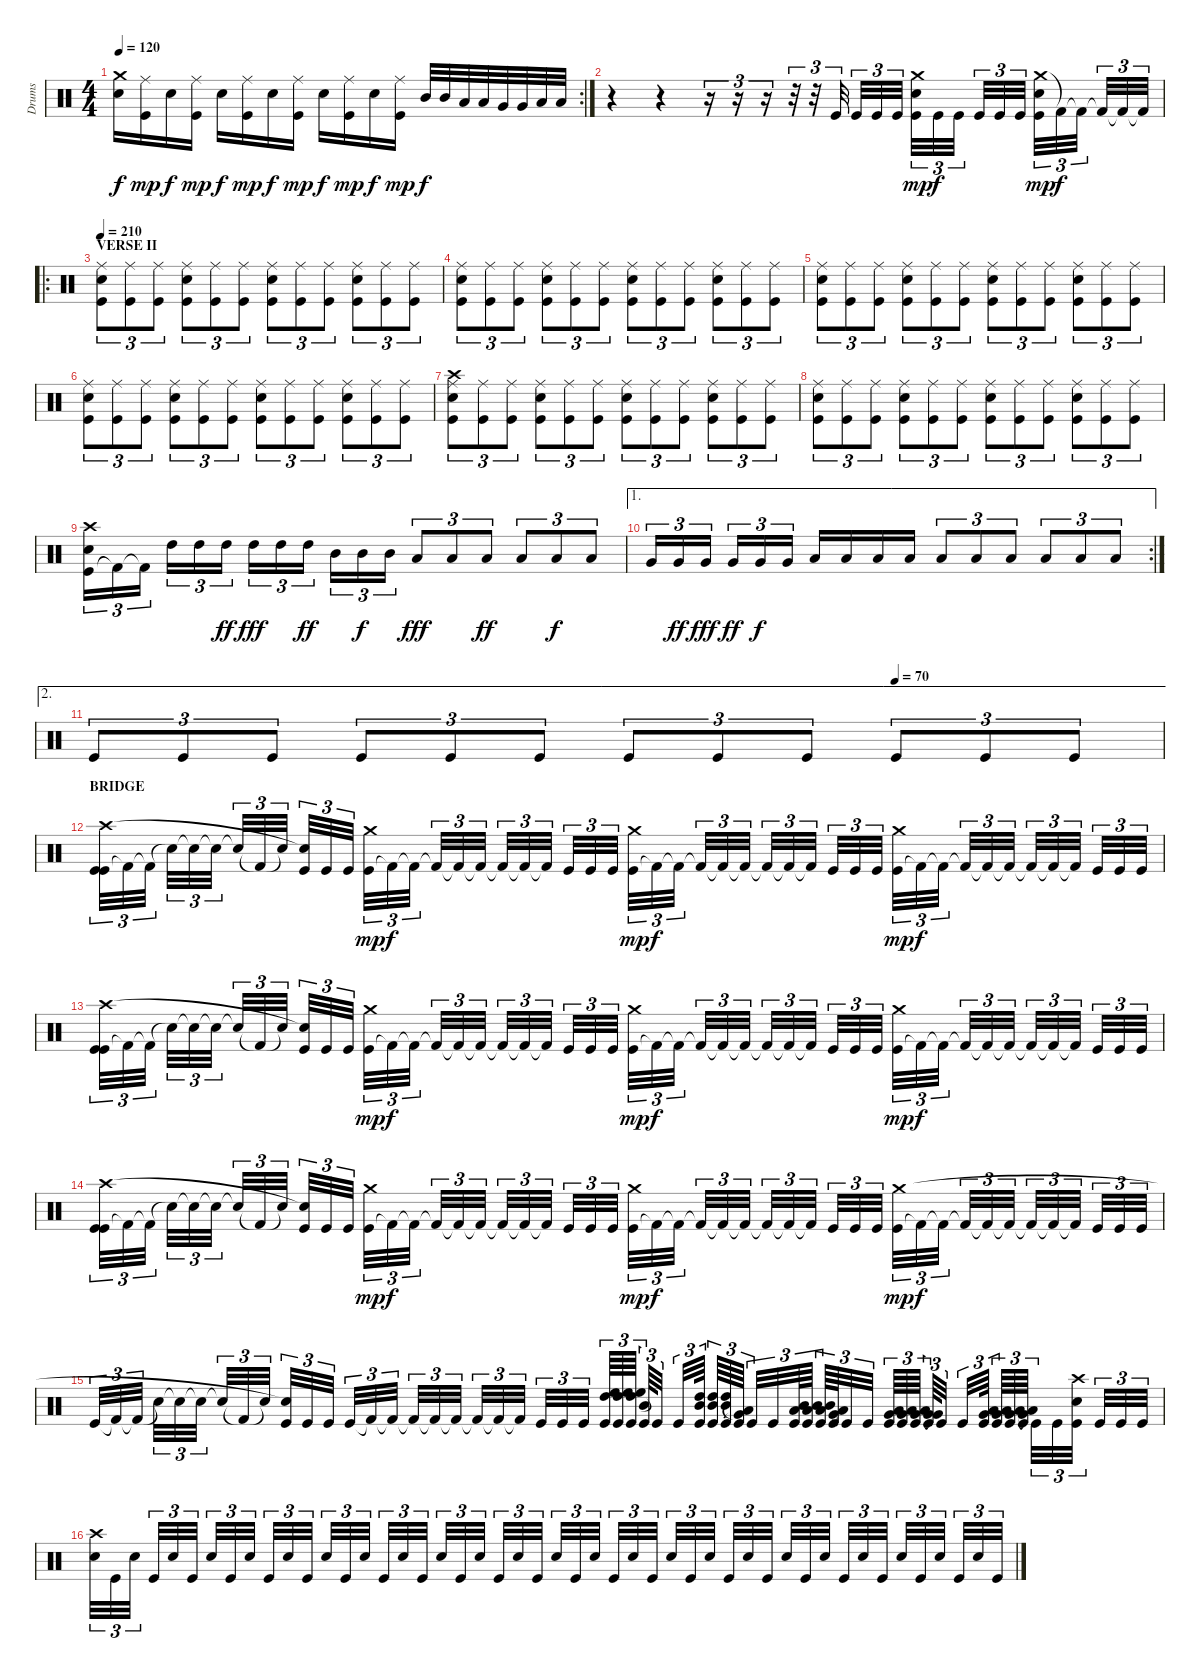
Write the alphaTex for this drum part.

\track ("Drums" "Drums") {instrument percussion}
\staff {score}
\articulation defaults
\rc 2
\ts (4 4)
\tempo 120
\clef neutral
\ks c
("Crash medium (hit)" "Snare (hit) 2").16{dy f} ("Ride (middle)" "Kick (hit)").16{dy mp} "Snare (hit) 2".16{dy f} ("Ride (middle)" "Kick (hit)").16{dy mp} "Snare (hit) 2".16{dy f} ("Ride (middle)" "Kick (hit)").16{dy mp} "Snare (hit) 2".16{dy f} ("Ride (middle)" "Kick (hit)").16{dy mp} "Snare (hit) 2".16{dy f} ("Ride (middle)" "Kick (hit)").16{dy mp} "Snare (hit) 2".16{dy f} ("Ride (middle)" "Kick (hit)").16{dy mp} "Mid Tom (hit)".32{dy f} "Mid Tom (hit)".32 "Low Tom (hit)".32 "Low Tom (hit)".32 "Very Low Tom (hit)".32 "Very Low Tom (hit)".32 "Low Floor Tom (hit)".32 "Low Floor Tom (hit)".32 |
r.4 r.4 r.16{tu (3 2)} r.16{tu (3 2)} r.16{tu (3 2)} r.32{tu (3 2)} r.32{tu (3 2)} "Kick (hit)".32{tu (3 2)} "Kick (hit)".32{tu (3 2)} "Kick (hit)".32{tu (3 2)} "Kick (hit)".32{tu (3 2)} ("Crash medium (hit)" "Snare (hit) 2" "Kick (hit)").32{tu (3 2) dy mp} "Kick (hit)".32{tu (3 2) dy f} "Kick (hit)".32{tu (3 2)} "Kick (hit)".32{tu (3 2)} "Kick (hit)".32{tu (3 2)} "Kick (hit)".32{tu (3 2)} ("Crash medium (hit)" "Snare (hit) 2" "Kick (hit)").32{tu (3 2) dy mp} "Kick (hit) 2"{t}.32{tu (3 2) dy f} "Kick (hit) 2"{t}.32{tu (3 2)} "Kick (hit) 2"{t}.32{tu (3 2)} "Kick (hit) 2"{t}.32{tu (3 2)} "Kick (hit) 2"{t}.32{tu (3 2)} |
\ro
\section ("" "VERSE II")
\tempo 210
("Snare (hit) 2" "Ride (middle)" "Kick (hit)").8{tu (3 2)} ("Ride (middle)" "Kick (hit)").8{tu (3 2)} ("Ride (middle)" "Kick (hit)").8{tu (3 2)} ("Snare (hit) 2" "Ride (middle)" "Kick (hit)").8{tu (3 2)} ("Ride (middle)" "Kick (hit)").8{tu (3 2)} ("Ride (middle)" "Kick (hit)").8{tu (3 2)} ("Snare (hit) 2" "Ride (middle)" "Kick (hit)").8{tu (3 2)} ("Ride (middle)" "Kick (hit)").8{tu (3 2)} ("Ride (middle)" "Kick (hit)").8{tu (3 2)} ("Snare (hit) 2" "Ride (middle)" "Kick (hit)").8{tu (3 2)} ("Ride (middle)" "Kick (hit)").8{tu (3 2)} ("Ride (middle)" "Kick (hit)").8{tu (3 2)} |
("Snare (hit) 2" "Ride (middle)" "Kick (hit)").8{tu (3 2)} ("Ride (middle)" "Kick (hit)").8{tu (3 2)} ("Ride (middle)" "Kick (hit)").8{tu (3 2)} ("Snare (hit) 2" "Ride (middle)" "Kick (hit)").8{tu (3 2)} ("Ride (middle)" "Kick (hit)").8{tu (3 2)} ("Ride (middle)" "Kick (hit)").8{tu (3 2)} ("Snare (hit) 2" "Ride (middle)" "Kick (hit)").8{tu (3 2)} ("Ride (middle)" "Kick (hit)").8{tu (3 2)} ("Ride (middle)" "Kick (hit)").8{tu (3 2)} ("Snare (hit) 2" "Ride (middle)" "Kick (hit)").8{tu (3 2)} ("Ride (middle)" "Kick (hit)").8{tu (3 2)} ("Ride (middle)" "Kick (hit)").8{tu (3 2)} |
("Snare (hit) 2" "Ride (middle)" "Kick (hit)").8{tu (3 2)} ("Ride (middle)" "Kick (hit)").8{tu (3 2)} ("Ride (middle)" "Kick (hit)").8{tu (3 2)} ("Snare (hit) 2" "Ride (middle)" "Kick (hit)").8{tu (3 2)} ("Ride (middle)" "Kick (hit)").8{tu (3 2)} ("Ride (middle)" "Kick (hit)").8{tu (3 2)} ("Snare (hit) 2" "Ride (middle)" "Kick (hit)").8{tu (3 2)} ("Ride (middle)" "Kick (hit)").8{tu (3 2)} ("Ride (middle)" "Kick (hit)").8{tu (3 2)} ("Snare (hit) 2" "Ride (middle)" "Kick (hit)").8{tu (3 2)} ("Ride (middle)" "Kick (hit)").8{tu (3 2)} ("Ride (middle)" "Kick (hit)").8{tu (3 2)} |
("Snare (hit) 2" "Ride (middle)" "Kick (hit)").8{tu (3 2)} ("Ride (middle)" "Kick (hit)").8{tu (3 2)} ("Ride (middle)" "Kick (hit)").8{tu (3 2)} ("Snare (hit) 2" "Ride (middle)" "Kick (hit)").8{tu (3 2)} ("Ride (middle)" "Kick (hit)").8{tu (3 2)} ("Ride (middle)" "Kick (hit)").8{tu (3 2)} ("Snare (hit) 2" "Ride (middle)" "Kick (hit)").8{tu (3 2)} ("Ride (middle)" "Kick (hit)").8{tu (3 2)} ("Ride (middle)" "Kick (hit)").8{tu (3 2)} ("Snare (hit) 2" "Ride (middle)" "Kick (hit)").8{tu (3 2)} ("Ride (middle)" "Kick (hit)").8{tu (3 2)} ("Ride (middle)" "Kick (hit)").8{tu (3 2)} |
("Snare (hit) 2" "Crash high (hit)" "Ride (middle)" "Kick (hit)").8{tu (3 2)} ("Ride (middle)" "Kick (hit)").8{tu (3 2)} ("Ride (middle)" "Kick (hit)").8{tu (3 2)} ("Snare (hit) 2" "Ride (middle)" "Kick (hit)").8{tu (3 2)} ("Ride (middle)" "Kick (hit)").8{tu (3 2)} ("Ride (middle)" "Kick (hit)").8{tu (3 2)} ("Snare (hit) 2" "Ride (middle)" "Kick (hit)").8{tu (3 2)} ("Ride (middle)" "Kick (hit)").8{tu (3 2)} ("Ride (middle)" "Kick (hit)").8{tu (3 2)} ("Snare (hit) 2" "Ride (middle)" "Kick (hit)").8{tu (3 2)} ("Ride (middle)" "Kick (hit)").8{tu (3 2)} ("Ride (middle)" "Kick (hit)").8{tu (3 2)} |
("Snare (hit) 2" "Ride (middle)" "Kick (hit)").8{tu (3 2)} ("Ride (middle)" "Kick (hit)").8{tu (3 2)} ("Ride (middle)" "Kick (hit)").8{tu (3 2)} ("Snare (hit) 2" "Ride (middle)" "Kick (hit)").8{tu (3 2)} ("Ride (middle)" "Kick (hit)").8{tu (3 2)} ("Ride (middle)" "Kick (hit)").8{tu (3 2)} ("Snare (hit) 2" "Ride (middle)" "Kick (hit)").8{tu (3 2)} ("Ride (middle)" "Kick (hit)").8{tu (3 2)} ("Ride (middle)" "Kick (hit)").8{tu (3 2)} ("Snare (hit) 2" "Ride (middle)" "Kick (hit)").8{tu (3 2)} ("Ride (middle)" "Kick (hit)").8{tu (3 2)} ("Ride (middle)" "Kick (hit)").8{tu (3 2)} |
("Kick (hit)" "Crash high (hit)" "Snare (hit) 2").16{tu (3 2)} "Kick (hit) 2"{t}.16{tu (3 2)} "Kick (hit) 2"{t}.16{tu (3 2)} "High Tom (hit)".16{tu (3 2)} "High Tom (hit)".16{tu (3 2)} "High Tom (hit)".16{tu (3 2) dy ff} "High Tom (hit)".16{tu (3 2) dy fff} "High Tom (hit)".16{tu (3 2)} "High Tom (hit)".16{tu (3 2) dy ff} "Mid Tom (hit)".16{tu (3 2)} "Mid Tom (hit)".16{tu (3 2) dy f} "Mid Tom (hit)".16{tu (3 2)} "Low Tom (hit)".8{tu (3 2) dy fff} "Low Tom (hit)".8{tu (3 2)} "Low Tom (hit)".8{tu (3 2) dy ff} "Low Tom (hit)".8{tu (3 2)} "Low Tom (hit)".8{tu (3 2) dy f} "Low Tom (hit)".8{tu (3 2)} |
\ae 1
\rc 2 "Very Low Tom (hit)".16{tu (3 2)} "Very Low Tom (hit)".16{tu (3 2) dy ff} "Very Low Tom (hit)".16{tu (3 2) dy fff} "Very Low Tom (hit)".16{tu (3 2) dy ff} "Very Low Tom (hit)".16{tu (3 2) dy f} "Very Low Tom (hit)".16{tu (3 2)} "Low Floor Tom (hit)".16 "Low Floor Tom (hit)".16 "Low Floor Tom (hit)".16 "Low Floor Tom (hit)".16 "Low Floor Tom (hit)".8{tu (3 2)} "Low Floor Tom (hit)".8{tu (3 2)} "Low Floor Tom (hit)".8{tu (3 2)} "Low Floor Tom (hit)".8{tu (3 2)} "Low Floor Tom (hit)".8{tu (3 2)} "Low Floor Tom (hit)".8{tu (3 2)}
|
\ae 2
\tempo (70 0.75)
"Kick (hit)".8{tu (3 2)} "Kick (hit)".8{tu (3 2)} "Kick (hit)".8{tu (3 2)} "Kick (hit)".8{tu (3 2)} "Kick (hit)".8{tu (3 2)} "Kick (hit)".8{tu (3 2)} "Kick (hit)".8{tu (3 2)} "Kick (hit)".8{tu (3 2)} "Kick (hit)".8{tu (3 2)} "Kick (hit)".8{tu (3 2)} "Kick (hit)".8{tu (3 2)} "Kick (hit)".8{tu (3 2)} |
\section ("" "BRIDGE")
("Kick (hit)" "Crash high (hit)" "Kick (hit)").32{tu (3 2)} "Kick (hit) 2"{t}.32{tu (3 2)} "Kick (hit) 2"{t}.32{tu (3 2)} "Snare (hit)"{t}.32{tu (3 2)} "Snare (hit)"{t}.32{tu (3 2)} "Snare (hit)"{t}.32{tu (3 2)} "Snare (hit)"{t}.32{tu (3 2)} "Kick (hit) 2"{t}.32{tu (3 2)} "Snare (hit)"{t}.32{tu (3 2)} ("Kick (hit)" "Snare (hit)"{t}).32{tu (3 2)} "Kick (hit)".32{tu (3 2)} "Kick (hit)".32{tu (3 2)} ("Kick (hit)" "Crash medium (hit)").32{tu (3 2) dy mp} "Kick (hit) 2"{t}.32{tu (3 2) dy f} "Kick (hit) 2"{t}.32{tu (3 2)} "Kick (hit) 2"{t}.32{tu (3 2)} "Kick (hit) 2"{t}.32{tu (3 2)} "Kick (hit) 2"{t}.32{tu (3 2)} "Kick (hit) 2"{t}.32{tu (3 2)} "Kick (hit) 2"{t}.32{tu (3 2)} "Kick (hit) 2"{t}.32{tu (3 2)} "Kick (hit)".32{tu (3 2)} "Kick (hit)".32{tu (3 2)} "Kick (hit)".32{tu (3 2)} ("Kick (hit)" "Crash medium (hit)").32{tu (3 2) dy mp} "Kick (hit) 2"{t}.32{tu (3 2) dy f} "Kick (hit) 2"{t}.32{tu (3 2)} "Kick (hit) 2"{t}.32{tu (3 2)} "Kick (hit) 2"{t}.32{tu (3 2)} "Kick (hit) 2"{t}.32{tu (3 2)} "Kick (hit) 2"{t}.32{tu (3 2)} "Kick (hit) 2"{t}.32{tu (3 2)} "Kick (hit) 2"{t}.32{tu (3 2)} "Kick (hit)".32{tu (3 2)} "Kick (hit)".32{tu (3 2)} "Kick (hit)".32{tu (3 2)} ("Kick (hit)" "Crash medium (hit)").32{tu (3 2) dy mp} "Kick (hit) 2"{t}.32{tu (3 2) dy f} "Kick (hit) 2"{t}.32{tu (3 2)} "Kick (hit) 2"{t}.32{tu (3 2)} "Kick (hit) 2"{t}.32{tu (3 2)} "Kick (hit) 2"{t}.32{tu (3 2)} "Kick (hit) 2"{t}.32{tu (3 2)} "Kick (hit) 2"{t}.32{tu (3 2)} "Kick (hit) 2"{t}.32{tu (3 2)} "Kick (hit)".32{tu (3 2)} "Kick (hit)".32{tu (3 2)} "Kick (hit)".32{tu (3 2)} |
("Kick (hit)" "Crash high (hit)" "Kick (hit)").32{tu (3 2)} "Kick (hit) 2"{t}.32{tu (3 2)} "Kick (hit) 2"{t}.32{tu (3 2)} "Snare (hit)"{t}.32{tu (3 2)} "Snare (hit)"{t}.32{tu (3 2)} "Snare (hit)"{t}.32{tu (3 2)} "Snare (hit)"{t}.32{tu (3 2)} "Kick (hit) 2"{t}.32{tu (3 2)} "Snare (hit)"{t}.32{tu (3 2)} ("Kick (hit)" "Snare (hit)"{t}).32{tu (3 2)} "Kick (hit)".32{tu (3 2)} "Kick (hit)".32{tu (3 2)} ("Kick (hit)" "Crash medium (hit)").32{tu (3 2) dy mp} "Kick (hit) 2"{t}.32{tu (3 2) dy f} "Kick (hit) 2"{t}.32{tu (3 2)} "Kick (hit) 2"{t}.32{tu (3 2)} "Kick (hit) 2"{t}.32{tu (3 2)} "Kick (hit) 2"{t}.32{tu (3 2)} "Kick (hit) 2"{t}.32{tu (3 2)} "Kick (hit) 2"{t}.32{tu (3 2)} "Kick (hit) 2"{t}.32{tu (3 2)} "Kick (hit)".32{tu (3 2)} "Kick (hit)".32{tu (3 2)} "Kick (hit)".32{tu (3 2)} ("Kick (hit)" "Crash medium (hit)").32{tu (3 2) dy mp} "Kick (hit) 2"{t}.32{tu (3 2) dy f} "Kick (hit) 2"{t}.32{tu (3 2)} "Kick (hit) 2"{t}.32{tu (3 2)} "Kick (hit) 2"{t}.32{tu (3 2)} "Kick (hit) 2"{t}.32{tu (3 2)} "Kick (hit) 2"{t}.32{tu (3 2)} "Kick (hit) 2"{t}.32{tu (3 2)} "Kick (hit) 2"{t}.32{tu (3 2)} "Kick (hit)".32{tu (3 2)} "Kick (hit)".32{tu (3 2)} "Kick (hit)".32{tu (3 2)} ("Kick (hit)" "Crash medium (hit)").32{tu (3 2) dy mp} "Kick (hit) 2"{t}.32{tu (3 2) dy f} "Kick (hit) 2"{t}.32{tu (3 2)} "Kick (hit) 2"{t}.32{tu (3 2)} "Kick (hit) 2"{t}.32{tu (3 2)} "Kick (hit) 2"{t}.32{tu (3 2)} "Kick (hit) 2"{t}.32{tu (3 2)} "Kick (hit) 2"{t}.32{tu (3 2)} "Kick (hit) 2"{t}.32{tu (3 2)} "Kick (hit)".32{tu (3 2)} "Kick (hit)".32{tu (3 2)} "Kick (hit)".32{tu (3 2)} |
("Kick (hit)" "Crash high (hit)" "Kick (hit)").32{tu (3 2)} "Kick (hit) 2"{t}.32{tu (3 2)} "Kick (hit) 2"{t}.32{tu (3 2)} "Snare (hit)"{t}.32{tu (3 2)} "Snare (hit)"{t}.32{tu (3 2)} "Snare (hit)"{t}.32{tu (3 2)} "Snare (hit)"{t}.32{tu (3 2)} "Kick (hit) 2"{t}.32{tu (3 2)} "Snare (hit)"{t}.32{tu (3 2)} ("Kick (hit)" "Snare (hit)"{t}).32{tu (3 2)} "Kick (hit)".32{tu (3 2)} "Kick (hit)".32{tu (3 2)} ("Kick (hit)" "Crash medium (hit)").32{tu (3 2) dy mp} "Kick (hit) 2"{t}.32{tu (3 2) dy f} "Kick (hit) 2"{t}.32{tu (3 2)} "Kick (hit) 2"{t}.32{tu (3 2)} "Kick (hit) 2"{t}.32{tu (3 2)} "Kick (hit) 2"{t}.32{tu (3 2)} "Kick (hit) 2"{t}.32{tu (3 2)} "Kick (hit) 2"{t}.32{tu (3 2)} "Kick (hit) 2"{t}.32{tu (3 2)} "Kick (hit)".32{tu (3 2)} "Kick (hit)".32{tu (3 2)} "Kick (hit)".32{tu (3 2)} ("Kick (hit)" "Crash medium (hit)").32{tu (3 2) dy mp} "Kick (hit) 2"{t}.32{tu (3 2) dy f} "Kick (hit) 2"{t}.32{tu (3 2)} "Kick (hit) 2"{t}.32{tu (3 2)} "Kick (hit) 2"{t}.32{tu (3 2)} "Kick (hit) 2"{t}.32{tu (3 2)} "Kick (hit) 2"{t}.32{tu (3 2)} "Kick (hit) 2"{t}.32{tu (3 2)} "Kick (hit) 2"{t}.32{tu (3 2)} "Kick (hit)".32{tu (3 2)} "Kick (hit)".32{tu (3 2)} "Kick (hit)".32{tu (3 2)} ("Kick (hit)" "Crash medium (hit)").32{tu (3 2) dy mp} "Kick (hit) 2"{t}.32{tu (3 2) dy f} "Kick (hit) 2"{t}.32{tu (3 2)} "Kick (hit) 2"{t}.32{tu (3 2)} "Kick (hit) 2"{t}.32{tu (3 2)} "Kick (hit) 2"{t}.32{tu (3 2)} "Kick (hit) 2"{t}.32{tu (3 2)} "Kick (hit) 2"{t}.32{tu (3 2)} "Kick (hit) 2"{t}.32{tu (3 2)} "Kick (hit)".32{tu (3 2)} "Kick (hit)".32{tu (3 2)} "Kick (hit)".32{tu (3 2)} |
"Kick (hit)".32{tu (3 2)} "Kick (hit) 2"{t}.32{tu (3 2)} "Kick (hit) 2"{t}.32{tu (3 2)} "Snare (hit)"{t}.32{tu (3 2)} "Snare (hit)"{t}.32{tu (3 2)} "Snare (hit)"{t}.32{tu (3 2)} "Snare (hit)"{t}.32{tu (3 2)} "Kick (hit) 2"{t}.32{tu (3 2)} "Snare (hit)"{t}.32{tu (3 2)} ("Kick (hit)" "Snare (hit)"{t}).32{tu (3 2)} "Kick (hit)".32{tu (3 2)} "Kick (hit)".32{tu (3 2)} "Kick (hit)".32{tu (3 2)} "Kick (hit) 2"{t}.32{tu (3 2)} "Kick (hit) 2"{t}.32{tu (3 2)} "Kick (hit) 2"{t}.32{tu (3 2)} "Kick (hit) 2"{t}.32{tu (3 2)} "Kick (hit) 2"{t}.32{tu (3 2)} "Kick (hit) 2"{t}.32{tu (3 2)} "Kick (hit) 2"{t}.32{tu (3 2)} "Kick (hit) 2"{t}.32{tu (3 2)} "Kick (hit)".32{tu (3 2)} "Kick (hit)".32{tu (3 2)} "Kick (hit)".32{tu (3 2)} ("Kick (hit)" "High Floor Tom (hit)" "High Tom (hit)").64{tu (3 2)} ("Kick (hit)" "High Floor Tom (hit)" "High Tom (hit)").64{tu (3 2)} ("Kick (hit)" "High Floor Tom (hit)" "High Tom (hit)").64{tu (3 2)} ("Kick (hit)" "Mid Tom (hit)"{t}).64{tu (3 2)} "Kick (hit)".32{tu (3 2)} "Kick (hit)".32{tu (3 2)} ("Kick (hit)" "Mid Tom (hit)" "High Tom (hit)").64{tu (3 2)} ("Kick (hit)" "Mid Tom (hit)" "High Tom (hit)").64{tu (3 2)} ("Kick (hit)" "Mid Tom (hit)" "High Tom (hit)").64{tu (3 2)} ("Kick (hit)" "Low Tom (hit)"{t} "Very Low Tom (hit)"{t}).64{tu (3 2)} "Kick (hit)".32{tu (3 2)} "Kick (hit)".32{tu (3 2)} ("Kick (hit)" "Mid Tom (hit)" "Low Tom (hit)").64{tu (3 2)} ("Kick (hit)" "Mid Tom (hit)" "Low Tom (hit)").64{tu (3 2)} ("Kick (hit)" "Mid Tom (hit)" "Low Tom (hit)").64{tu (3 2)} ("Kick (hit)" "Low Tom (hit)"{t} "Very Low Tom (hit)"{t}).64{tu (3 2)} "Kick (hit)".32{tu (3 2)} "Kick (hit)".32{tu (3 2)} ("Kick (hit)" "Very Low Tom (hit)" "Low Tom (hit)").64{tu (3 2)} ("Kick (hit)" "Very Low Tom (hit)" "Low Tom (hit)").64{tu (3 2)} ("Kick (hit)" "Very Low Tom (hit)" "Low Tom (hit)").64{tu (3 2)} ("Kick (hit)" "Very Low Tom (hit)"{t} "Very Low Tom (hit)"{t}).64{tu (3 2)} "Kick (hit)".32{tu (3 2)} "Kick (hit)".32{tu (3 2)} ("Kick (hit)" "Low Floor Tom (hit)" "Very Low Tom (hit)").64{tu (3 2)} ("Kick (hit)" "Low Floor Tom (hit)" "Very Low Tom (hit)").64{tu (3 2)} ("Kick (hit)" "Low Floor Tom (hit)" "Very Low Tom (hit)").64{tu (3 2)} ("Kick (hit)" "Low Tom (hit)"{t} "Very Low Tom (hit)"{t}).64{tu (3 2)} "Kick (hit)".32{tu (3 2)} "Kick (hit)".32{tu (3 2)} ("Kick (hit)" "Crash high (hit)" "Snare (hit) 2").32{tu (3 2)} "Kick (hit)".32{tu (3 2)} "Kick (hit)".32{tu (3 2)} "Kick (hit)".32{tu (3 2)} |
("Snare (hit) 2" "Crash high (hit)").32{tu (3 2)} "Kick (hit)".32{tu (3 2)} "Snare (hit) 2".32{tu (3 2)} "Kick (hit)".32{tu (3 2)} "Snare (hit) 2".32{tu (3 2)} "Kick (hit)".32{tu (3 2)} "Snare (hit) 2".32{tu (3 2)} "Kick (hit)".32{tu (3 2)} "Snare (hit) 2".32{tu (3 2)} "Kick (hit)".32{tu (3 2)} "Snare (hit) 2".32{tu (3 2)} "Kick (hit)".32{tu (3 2)} "Snare (hit) 2".32{tu (3 2)} "Kick (hit)".32{tu (3 2)} "Snare (hit) 2".32{tu (3 2)} "Kick (hit)".32{tu (3 2)} "Snare (hit) 2".32{tu (3 2)} "Kick (hit)".32{tu (3 2)} "Snare (hit) 2".32{tu (3 2)} "Kick (hit)".32{tu (3 2)} "Snare (hit) 2".32{tu (3 2)} "Kick (hit)".32{tu (3 2)} "Snare (hit) 2".32{tu (3 2)} "Kick (hit)".32{tu (3 2)} "Snare (hit) 2".32{tu (3 2)} "Kick (hit)".32{tu (3 2)} "Snare (hit) 2".32{tu (3 2)} "Kick (hit)".32{tu (3 2)} "Snare (hit) 2".32{tu (3 2)} "Kick (hit)".32{tu (3 2)} "Snare (hit) 2".32{tu (3 2)} "Kick (hit)".32{tu (3 2)} "Snare (hit) 2".32{tu (3 2)} "Kick (hit)".32{tu (3 2)} "Snare (hit) 2".32{tu (3 2)} "Kick (hit)".32{tu (3 2)} "Snare (hit) 2".32{tu (3 2)} "Kick (hit)".32{tu (3 2)} "Snare (hit) 2".32{tu (3 2)} "Kick (hit)".32{tu (3 2)} "Snare (hit) 2".32{tu (3 2)} "Kick (hit)".32{tu (3 2)} "Snare (hit) 2".32{tu (3 2)} "Kick (hit)".32{tu (3 2)} "Snare (hit) 2".32{tu (3 2)} "Kick (hit)".32{tu (3 2)} "Snare (hit) 2".32{tu (3 2)} "Kick (hit)".32{tu (3 2)}
